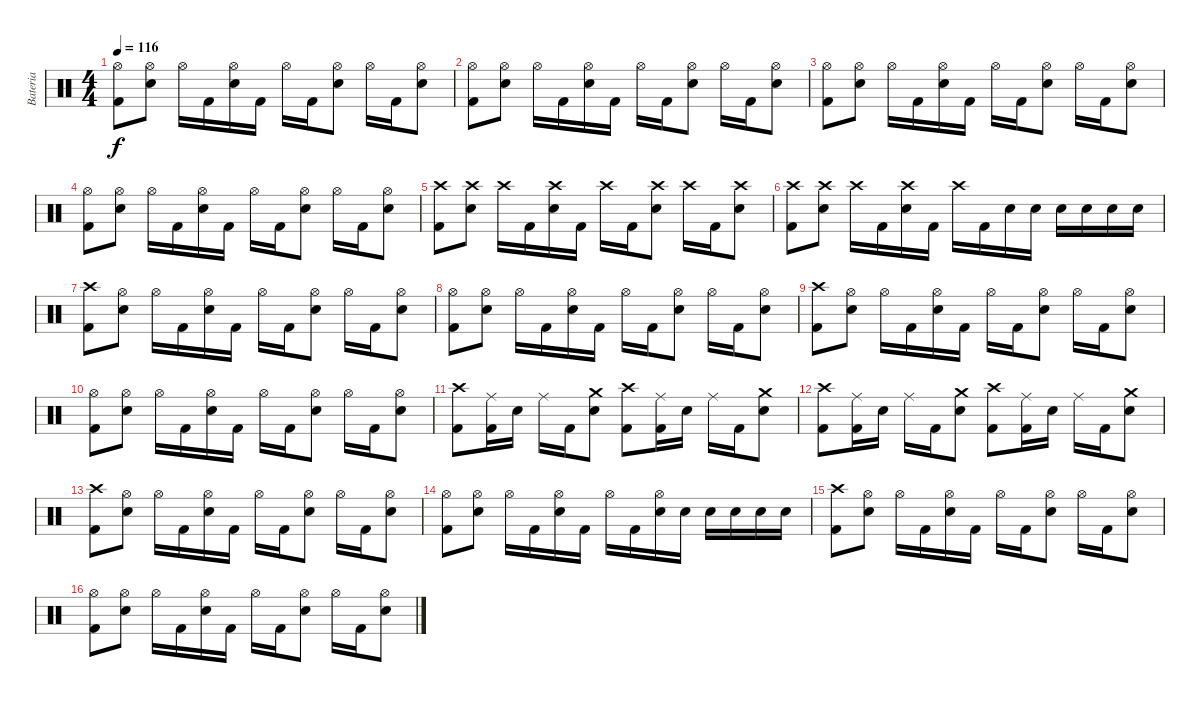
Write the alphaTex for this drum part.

\track ("Bateria" "Bateria") {instrument percussion}
\staff {score}
\articulation defaults
\ts (4 4)
\tempo 116
\clef neutral
\ks c
("Kick (hit) 2" "Hi-Hat (open)").8{dy f} ("Snare (hit) 2" "Hi-Hat (open)").8 "Hi-Hat (open)".16 "Kick (hit) 2".16 ("Snare (hit) 2" "Hi-Hat (open)").16 "Kick (hit) 2".16 "Hi-Hat (open)".16 "Kick (hit) 2".16 ("Snare (hit) 2" "Hi-Hat (open)").8 "Hi-Hat (open)".16 "Kick (hit) 2".16 ("Snare (hit) 2" "Hi-Hat (open)").8 |
("Kick (hit) 2" "Hi-Hat (open)").8 ("Snare (hit) 2" "Hi-Hat (open)").8 "Hi-Hat (open)".16 "Kick (hit) 2".16 ("Snare (hit) 2" "Hi-Hat (open)").16 "Kick (hit) 2".16 "Hi-Hat (open)".16 "Kick (hit) 2".16 ("Snare (hit) 2" "Hi-Hat (open)").8 "Hi-Hat (open)".16 "Kick (hit) 2".16 ("Snare (hit) 2" "Hi-Hat (open)").8 |
("Kick (hit) 2" "Hi-Hat (open)").8 ("Snare (hit) 2" "Hi-Hat (open)").8 "Hi-Hat (open)".16 "Kick (hit) 2".16 ("Snare (hit) 2" "Hi-Hat (open)").16 "Kick (hit) 2".16 "Hi-Hat (open)".16 "Kick (hit) 2".16 ("Snare (hit) 2" "Hi-Hat (open)").8 "Hi-Hat (open)".16 "Kick (hit) 2".16 ("Snare (hit) 2" "Hi-Hat (open)").8 |
("Kick (hit) 2" "Hi-Hat (open)").8 ("Snare (hit) 2" "Hi-Hat (open)").8 "Hi-Hat (open)".16 "Kick (hit) 2".16 ("Snare (hit) 2" "Hi-Hat (open)").16 "Kick (hit) 2".16 "Hi-Hat (open)".16 "Kick (hit) 2".16 ("Snare (hit) 2" "Hi-Hat (open)").8 "Hi-Hat (open)".16 "Kick (hit) 2".16 ("Snare (hit) 2" "Hi-Hat (open)").8 |
("Kick (hit) 2" "Crash high (hit)").8 ("Snare (hit) 2" "Crash high (hit)").8 "Crash high (hit)".16 "Kick (hit) 2".16 ("Snare (hit) 2" "Crash high (hit)").16 "Kick (hit) 2".16 "Crash high (hit)".16 "Kick (hit) 2".16 ("Snare (hit) 2" "Crash high (hit)").8 "Crash high (hit)".16 "Kick (hit) 2".16 ("Snare (hit) 2" "Crash high (hit)").8 |
("Kick (hit) 2" "Crash high (hit)").8 ("Snare (hit) 2" "Crash high (hit)").8 "Crash high (hit)".16 "Kick (hit) 2".16 ("Snare (hit) 2" "Crash high (hit)").16 "Kick (hit) 2".16 "Crash high (hit)".16 "Kick (hit) 2".16 "Snare (hit) 2".16 "Snare (hit) 2".16 "Snare (hit) 2".16 "Snare (hit) 2".16 "Snare (hit) 2".16 "Snare (hit) 2".16 |
("Kick (hit) 2" "Crash high (hit)").8 ("Snare (hit) 2" "Hi-Hat (open)").8 "Hi-Hat (open)".16 "Kick (hit) 2".16 ("Snare (hit) 2" "Hi-Hat (open)").16 "Kick (hit) 2".16 "Hi-Hat (open)".16 "Kick (hit) 2".16 ("Snare (hit) 2" "Hi-Hat (open)").8 "Hi-Hat (open)".16 "Kick (hit) 2".16 ("Snare (hit) 2" "Hi-Hat (open)").8 |
("Kick (hit) 2" "Hi-Hat (open)").8 ("Snare (hit) 2" "Hi-Hat (open)").8 "Hi-Hat (open)".16 "Kick (hit) 2".16 ("Snare (hit) 2" "Hi-Hat (open)").16 "Kick (hit) 2".16 "Hi-Hat (open)".16 "Kick (hit) 2".16 ("Snare (hit) 2" "Hi-Hat (open)").8 "Hi-Hat (open)".16 "Kick (hit) 2".16 ("Snare (hit) 2" "Hi-Hat (open)").8 |
("Kick (hit) 2" "Crash high (hit)").8 ("Snare (hit) 2" "Hi-Hat (open)").8 "Hi-Hat (open)".16 "Kick (hit) 2".16 ("Snare (hit) 2" "Hi-Hat (open)").16 "Kick (hit) 2".16 "Hi-Hat (open)".16 "Kick (hit) 2".16 ("Snare (hit) 2" "Hi-Hat (open)").8 "Hi-Hat (open)".16 "Kick (hit) 2".16 ("Snare (hit) 2" "Hi-Hat (open)").8 |
("Kick (hit) 2" "Hi-Hat (open)").8 ("Snare (hit) 2" "Hi-Hat (open)").8 "Hi-Hat (open)".16 "Kick (hit) 2".16 ("Snare (hit) 2" "Hi-Hat (open)").16 "Kick (hit) 2".16 "Hi-Hat (open)".16 "Kick (hit) 2".16 ("Snare (hit) 2" "Hi-Hat (open)").8 "Hi-Hat (open)".16 "Kick (hit) 2".16 ("Snare (hit) 2" "Hi-Hat (open)").8 |
("Kick (hit) 2" "Crash high (hit)").8 ("Kick (hit) 2" "Ride (middle)").16 "Snare (hit) 2".16 "Ride (middle)".16 "Kick (hit) 2".16 ("Snare (hit) 2" "Crash medium (hit)").8 ("Kick (hit) 2" "Crash high (hit)").8 ("Kick (hit) 2" "Ride (middle)").16 "Snare (hit) 2".16 "Ride (middle)".16 "Kick (hit) 2".16 ("Snare (hit) 2" "Crash medium (hit)").8 |
("Kick (hit) 2" "Crash high (hit)").8 ("Kick (hit) 2" "Ride (middle)").16 "Snare (hit) 2".16 "Ride (middle)".16 "Kick (hit) 2".16 ("Snare (hit) 2" "Crash medium (hit)").8 ("Kick (hit) 2" "Crash high (hit)").8 ("Kick (hit) 2" "Ride (middle)").16 "Snare (hit) 2".16 "Ride (middle)".16 "Kick (hit) 2".16 ("Snare (hit) 2" "Crash medium (hit)").8 |
("Kick (hit) 2" "Crash high (hit)").8 ("Snare (hit) 2" "Hi-Hat (open)").8 "Hi-Hat (open)".16 "Kick (hit) 2".16 ("Snare (hit) 2" "Hi-Hat (open)").16 "Kick (hit) 2".16 "Hi-Hat (open)".16 "Kick (hit) 2".16 ("Snare (hit) 2" "Hi-Hat (open)").8 "Hi-Hat (open)".16 "Kick (hit) 2".16 ("Snare (hit) 2" "Hi-Hat (open)").8 |
("Kick (hit) 2" "Hi-Hat (open)").8 ("Snare (hit) 2" "Hi-Hat (open)").8 "Hi-Hat (open)".16 "Kick (hit) 2".16 ("Snare (hit) 2" "Hi-Hat (open)").16 "Kick (hit) 2".16 "Hi-Hat (open)".16 "Kick (hit) 2".16 ("Snare (hit) 2" "Hi-Hat (open)").16 "Snare (hit) 2".16 "Snare (hit) 2".16 "Snare (hit) 2".16 "Snare (hit) 2".16 "Snare (hit) 2".16 |
("Kick (hit) 2" "Crash high (hit)").8 ("Snare (hit) 2" "Hi-Hat (open)").8 "Hi-Hat (open)".16 "Kick (hit) 2".16 ("Snare (hit) 2" "Hi-Hat (open)").16 "Kick (hit) 2".16 "Hi-Hat (open)".16 "Kick (hit) 2".16 ("Snare (hit) 2" "Hi-Hat (open)").8 "Hi-Hat (open)".16 "Kick (hit) 2".16 ("Snare (hit) 2" "Hi-Hat (open)").8 |
("Kick (hit) 2" "Hi-Hat (open)").8 ("Snare (hit) 2" "Hi-Hat (open)").8 "Hi-Hat (open)".16 "Kick (hit) 2".16 ("Snare (hit) 2" "Hi-Hat (open)").16 "Kick (hit) 2".16 "Hi-Hat (open)".16 "Kick (hit) 2".16 ("Snare (hit) 2" "Hi-Hat (open)").8 "Hi-Hat (open)".16 "Kick (hit) 2".16 ("Snare (hit) 2" "Hi-Hat (open)").8
